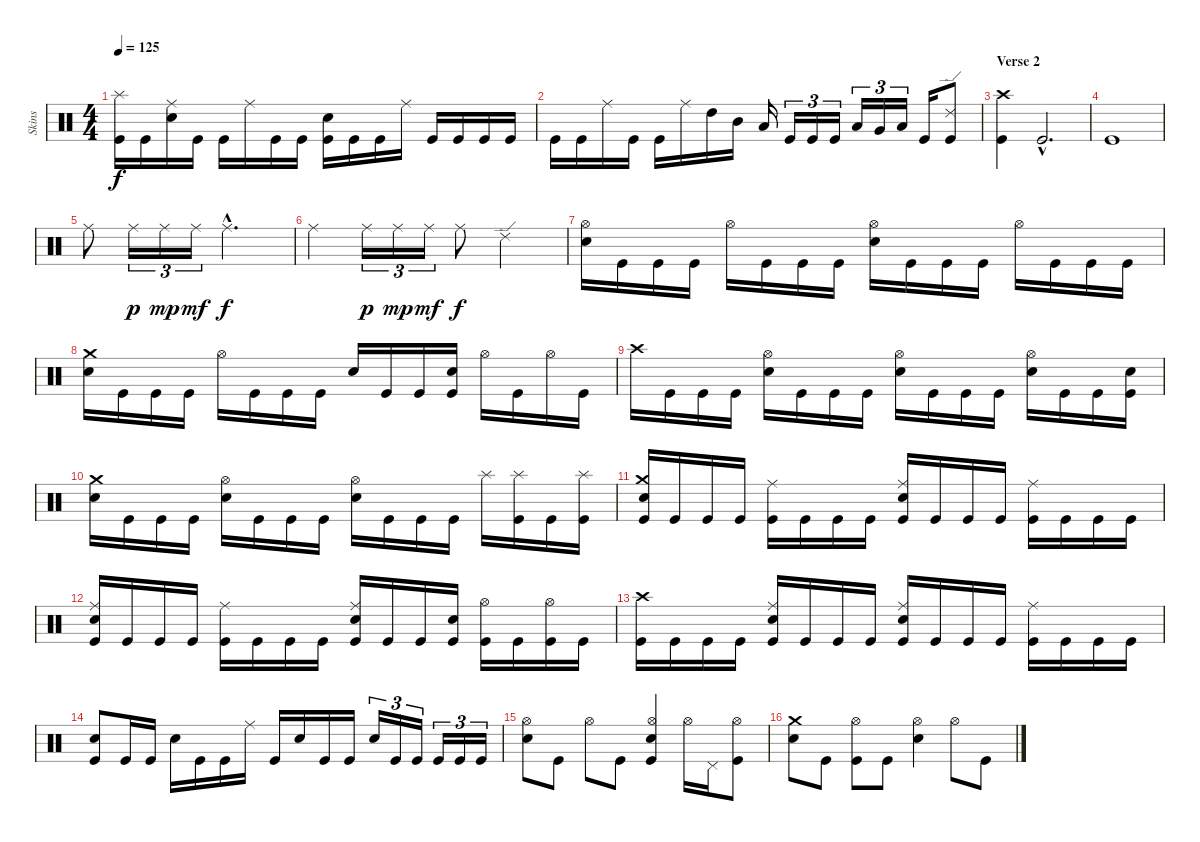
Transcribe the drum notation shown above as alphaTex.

\track ("Skins" "Skins") {instrument percussion}
\staff {score}
\articulation defaults
\ts (4 4)
\tempo 125
\clef neutral
\ks c
("Splash (hit)" "Kick (hit)").16{dy f} "Kick (hit)".16 ("Ride (middle)" "Electric Snare (hit)").16 "Kick (hit)".16 "Kick (hit)".16 "Ride (middle)".16 "Kick (hit)".16 "Kick (hit)".16 ("Electric Snare (hit)" "Kick (hit)").16 "Kick (hit)".16 "Kick (hit)".16 "Ride (middle)".16 "Kick (hit)".16 "Kick (hit)".16 "Kick (hit)".16 "Kick (hit)".16 |
"Kick (hit)".16 "Kick (hit)".16 "Ride (middle)".16 "Kick (hit)".16 "Kick (hit)".16 "Ride (middle)".16 "High Tom (hit)".16 "Mid Tom (hit)".16 "Low Tom (hit)".16 "Kick (hit)".16{tu (3 2)} "Kick (hit)".16{tu (3 2)} "Kick (hit)".16{tu (3 2)} "Low Tom (hit)".16{tu (3 2)} "Very Low Tom (hit)".16{tu (3 2)} "Low Floor Tom (hit)".16{tu (3 2)} "Kick (hit)".16 ("Ride (edge) 2" "Kick (hit)").8 |
\section ("" "Verse 2")
("Crash high (hit)" "Kick (hit)").4 "Kick (hit)"{hac}.2{d} |
"Kick (hit)".1 |
"Ride (middle)".8 "Ride (middle)".16{tu (3 2) dy p} "Ride (middle)".16{tu (3 2) dy mp} "Ride (middle)".16{tu (3 2) dy mf} "Ride (middle)"{hac}.2{d dy f} |
"Ride (middle)".4 "Ride (middle)".16{tu (3 2) dy p} "Ride (middle)".16{tu (3 2) dy mp} "Ride (middle)".16{tu (3 2) dy mf} "Ride (middle)".8{dy f} "Ride (edge) 2".2 |
("Hi-Hat (open)" "Electric Snare (hit)").16 "Kick (hit)".16 "Kick (hit)".16 "Kick (hit)".16 "Hi-Hat (open)".16 "Kick (hit)".16 "Kick (hit)".16 "Kick (hit)".16 ("Hi-Hat (open)" "Electric Snare (hit)").16 "Kick (hit)".16 "Kick (hit)".16 "Kick (hit)".16 "Hi-Hat (open)".16 "Kick (hit)".16 "Kick (hit)".16 "Kick (hit)".16 |
("Crash medium (hit)" "Electric Snare (hit)").16 "Kick (hit)".16 "Kick (hit)".16 "Kick (hit)".16 "Hi-Hat (open)".16 "Kick (hit)".16 "Kick (hit)".16 "Kick (hit)".16 "Electric Snare (hit)".16 "Kick (hit)".16 "Kick (hit)".16 ("Electric Snare (hit)" "Kick (hit)").16 "Hi-Hat (open)".16 "Kick (hit)".16 "Hi-Hat (open)".16 "Kick (hit)".16 |
"Crash high (hit)".16 "Kick (hit)".16 "Kick (hit)".16 "Kick (hit)".16 ("Hi-Hat (open)" "Electric Snare (hit)").16 "Kick (hit)".16 "Kick (hit)".16 "Kick (hit)".16 ("Hi-Hat (open)" "Electric Snare (hit)").16 "Kick (hit)".16 "Kick (hit)".16 "Kick (hit)".16 ("Hi-Hat (open)" "Electric Snare (hit)").16 "Kick (hit)".16 "Kick (hit)".16 ("Snare (hit) 2" "Kick (hit)").16 |
("Crash medium (hit)" "Electric Snare (hit)").16 "Kick (hit)".16 "Kick (hit)".16 "Kick (hit)".16 ("Hi-Hat (open)" "Electric Snare (hit)").16 "Kick (hit)".16 "Kick (hit)".16 "Kick (hit)".16 ("Hi-Hat (open)" "Electric Snare (hit)").16 "Kick (hit)".16 "Kick (hit)".16 "Kick (hit)".16 "Splash (hit)".16 ("Splash (hit)" "Kick (hit)").16 "Kick (hit)".16 ("Splash (hit)" "Kick (hit)").16 |
("Crash medium (hit)" "Snare (hit) 2" "Kick (hit)").16 "Kick (hit)".16 "Kick (hit)".16 "Kick (hit)".16 ("Ride (middle)" "Kick (hit)").16 "Kick (hit)".16 "Kick (hit)".16 "Kick (hit)".16 ("Ride (middle)" "Snare (hit) 2" "Kick (hit)").16 "Kick (hit)".16 "Kick (hit)".16 "Kick (hit)".16 ("Ride (middle)" "Kick (hit)").16 "Kick (hit)".16 "Kick (hit)".16 "Kick (hit)".16 |
("Ride (middle)" "Snare (hit) 2" "Kick (hit)").16 "Kick (hit)".16 "Kick (hit)".16 "Kick (hit)".16 ("Ride (middle)" "Kick (hit)").16 "Kick (hit)".16 "Kick (hit)".16 "Kick (hit)".16 ("Ride (middle)" "Snare (hit) 2" "Kick (hit)").16 "Kick (hit)".16 "Kick (hit)".16 ("Snare (hit) 2" "Kick (hit)").16 ("Hi-Hat (open)" "Kick (hit)").16 "Kick (hit)".16 ("Hi-Hat (open)" "Kick (hit)").16 "Kick (hit)".16 |
("Crash high (hit)" "Kick (hit)").16 "Kick (hit)".16 "Kick (hit)".16 "Kick (hit)".16 ("Ride (middle)" "Snare (hit) 2" "Kick (hit)").16 "Kick (hit)".16 "Kick (hit)".16 "Kick (hit)".16 ("Ride (middle)" "Snare (hit) 2" "Kick (hit)").16 "Kick (hit)".16 "Kick (hit)".16 "Kick (hit)".16 ("Ride (middle)" "Kick (hit)").16 "Kick (hit)".16 "Kick (hit)".16 "Kick (hit)".16 |
("Electric Snare (hit)" "Kick (hit)").8 "Kick (hit)".16 "Kick (hit)".16 "Snare (hit) 2".16 "Kick (hit)".16 "Kick (hit)".16 "Ride (middle)".16 "Kick (hit)".16 "Snare (hit) 2".16 "Kick (hit)".16 "Kick (hit)".16 "Snare (hit) 2".16{tu (3 2)} "Kick (hit)".16{tu (3 2)} "Kick (hit)".16{tu (3 2)} "Kick (hit)".16{tu (3 2)} "Kick (hit)".16{tu (3 2)} "Kick (hit)".16{tu (3 2)} |
("Hi-Hat (open)" "Snare (hit) 2").8 "Kick (hit)".8 "Hi-Hat (open)".8 "Kick (hit)".8 ("Hi-Hat (open)" "Snare (hit) 2" "Kick (hit)").4 "Hi-Hat (open)".16 "Pedal Hi-Hat (hit)".16 ("Hi-Hat (open)" "Kick (hit)").8 |
("Crash medium (hit)" "Snare (hit) 2").8 "Kick (hit)".8 ("Hi-Hat (open)" "Kick (hit)").8 "Kick (hit)".8 ("Hi-Hat (open)" "Snare (hit) 2").4 "Hi-Hat (open)".8 "Kick (hit)".8
